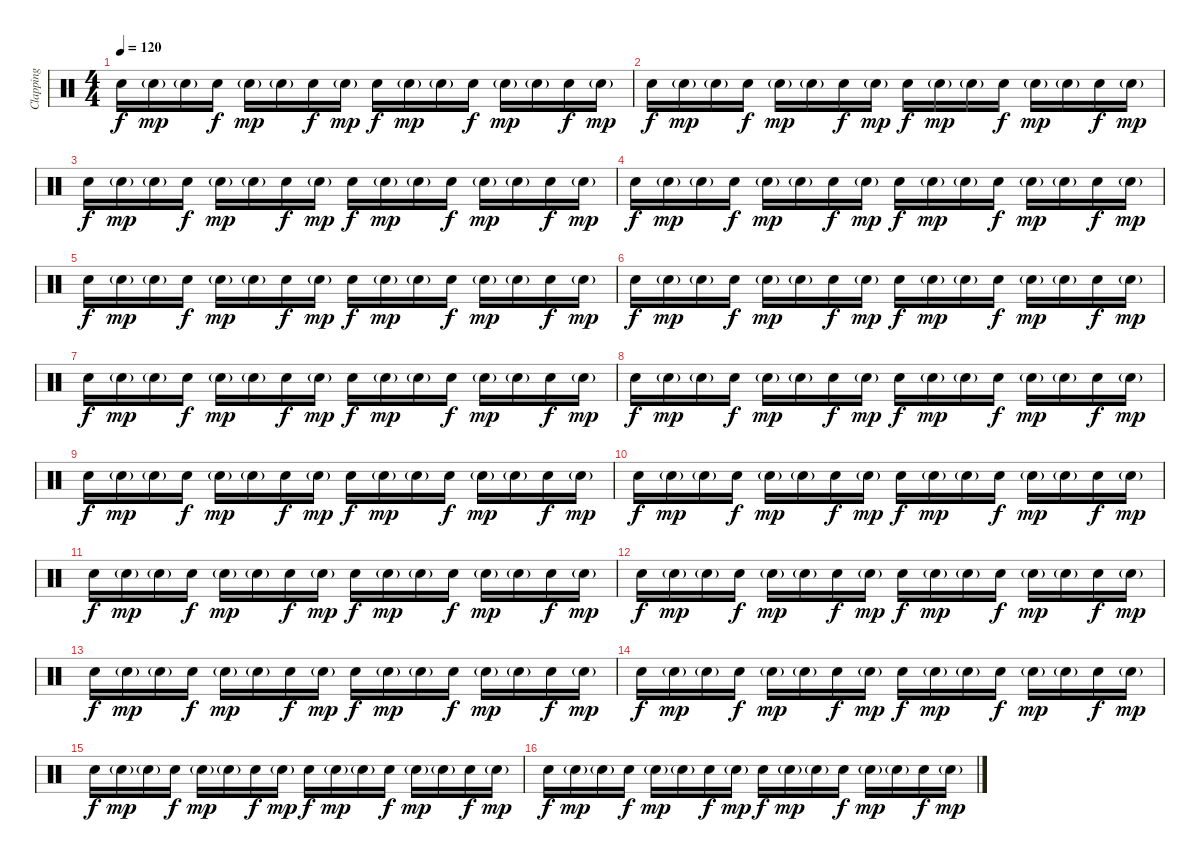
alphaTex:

\track ("Clapping" "Clapping") {instrument percussion}
\staff {score}
\articulation defaults
\ts (4 4)
\tempo 120
\clef neutral
\ks c "Hand Clap (hit)".16{dy f} "Hand Clap (hit)"{g}.16{dy mp} "Hand Clap (hit)"{g}.16 "Hand Clap (hit)".16{dy f} "Hand Clap (hit)"{g}.16{dy mp} "Hand Clap (hit)"{g}.16 "Hand Clap (hit)".16{dy f} "Hand Clap (hit)"{g}.16{dy mp} "Hand Clap (hit)".16{dy f} "Hand Clap (hit)"{g}.16{dy mp} "Hand Clap (hit)"{g}.16 "Hand Clap (hit)".16{dy f} "Hand Clap (hit)"{g}.16{dy mp} "Hand Clap (hit)"{g}.16 "Hand Clap (hit)".16{dy f} "Hand Clap (hit)"{g}.16{dy mp}
|
"Hand Clap (hit)".16{dy f} "Hand Clap (hit)"{g}.16{dy mp} "Hand Clap (hit)"{g}.16 "Hand Clap (hit)".16{dy f} "Hand Clap (hit)"{g}.16{dy mp} "Hand Clap (hit)"{g}.16 "Hand Clap (hit)".16{dy f} "Hand Clap (hit)"{g}.16{dy mp} "Hand Clap (hit)".16{dy f} "Hand Clap (hit)"{g}.16{dy mp} "Hand Clap (hit)"{g}.16 "Hand Clap (hit)".16{dy f} "Hand Clap (hit)"{g}.16{dy mp} "Hand Clap (hit)"{g}.16 "Hand Clap (hit)".16{dy f} "Hand Clap (hit)"{g}.16{dy mp} |
"Hand Clap (hit)".16{dy f} "Hand Clap (hit)"{g}.16{dy mp} "Hand Clap (hit)"{g}.16 "Hand Clap (hit)".16{dy f} "Hand Clap (hit)"{g}.16{dy mp} "Hand Clap (hit)"{g}.16 "Hand Clap (hit)".16{dy f} "Hand Clap (hit)"{g}.16{dy mp} "Hand Clap (hit)".16{dy f} "Hand Clap (hit)"{g}.16{dy mp} "Hand Clap (hit)"{g}.16 "Hand Clap (hit)".16{dy f} "Hand Clap (hit)"{g}.16{dy mp} "Hand Clap (hit)"{g}.16 "Hand Clap (hit)".16{dy f} "Hand Clap (hit)"{g}.16{dy mp} |
"Hand Clap (hit)".16{dy f} "Hand Clap (hit)"{g}.16{dy mp} "Hand Clap (hit)"{g}.16 "Hand Clap (hit)".16{dy f} "Hand Clap (hit)"{g}.16{dy mp} "Hand Clap (hit)"{g}.16 "Hand Clap (hit)".16{dy f} "Hand Clap (hit)"{g}.16{dy mp} "Hand Clap (hit)".16{dy f} "Hand Clap (hit)"{g}.16{dy mp} "Hand Clap (hit)"{g}.16 "Hand Clap (hit)".16{dy f} "Hand Clap (hit)"{g}.16{dy mp} "Hand Clap (hit)"{g}.16 "Hand Clap (hit)".16{dy f} "Hand Clap (hit)"{g}.16{dy mp} |
"Hand Clap (hit)".16{dy f} "Hand Clap (hit)"{g}.16{dy mp} "Hand Clap (hit)"{g}.16 "Hand Clap (hit)".16{dy f} "Hand Clap (hit)"{g}.16{dy mp} "Hand Clap (hit)"{g}.16 "Hand Clap (hit)".16{dy f} "Hand Clap (hit)"{g}.16{dy mp} "Hand Clap (hit)".16{dy f} "Hand Clap (hit)"{g}.16{dy mp} "Hand Clap (hit)"{g}.16 "Hand Clap (hit)".16{dy f} "Hand Clap (hit)"{g}.16{dy mp} "Hand Clap (hit)"{g}.16 "Hand Clap (hit)".16{dy f} "Hand Clap (hit)"{g}.16{dy mp} |
"Hand Clap (hit)".16{dy f} "Hand Clap (hit)"{g}.16{dy mp} "Hand Clap (hit)"{g}.16 "Hand Clap (hit)".16{dy f} "Hand Clap (hit)"{g}.16{dy mp} "Hand Clap (hit)"{g}.16 "Hand Clap (hit)".16{dy f} "Hand Clap (hit)"{g}.16{dy mp} "Hand Clap (hit)".16{dy f} "Hand Clap (hit)"{g}.16{dy mp} "Hand Clap (hit)"{g}.16 "Hand Clap (hit)".16{dy f} "Hand Clap (hit)"{g}.16{dy mp} "Hand Clap (hit)"{g}.16 "Hand Clap (hit)".16{dy f} "Hand Clap (hit)"{g}.16{dy mp} |
"Hand Clap (hit)".16{dy f} "Hand Clap (hit)"{g}.16{dy mp} "Hand Clap (hit)"{g}.16 "Hand Clap (hit)".16{dy f} "Hand Clap (hit)"{g}.16{dy mp} "Hand Clap (hit)"{g}.16 "Hand Clap (hit)".16{dy f} "Hand Clap (hit)"{g}.16{dy mp} "Hand Clap (hit)".16{dy f} "Hand Clap (hit)"{g}.16{dy mp} "Hand Clap (hit)"{g}.16 "Hand Clap (hit)".16{dy f} "Hand Clap (hit)"{g}.16{dy mp} "Hand Clap (hit)"{g}.16 "Hand Clap (hit)".16{dy f} "Hand Clap (hit)"{g}.16{dy mp} |
"Hand Clap (hit)".16{dy f} "Hand Clap (hit)"{g}.16{dy mp} "Hand Clap (hit)"{g}.16 "Hand Clap (hit)".16{dy f} "Hand Clap (hit)"{g}.16{dy mp} "Hand Clap (hit)"{g}.16 "Hand Clap (hit)".16{dy f} "Hand Clap (hit)"{g}.16{dy mp} "Hand Clap (hit)".16{dy f} "Hand Clap (hit)"{g}.16{dy mp} "Hand Clap (hit)"{g}.16 "Hand Clap (hit)".16{dy f} "Hand Clap (hit)"{g}.16{dy mp} "Hand Clap (hit)"{g}.16 "Hand Clap (hit)".16{dy f} "Hand Clap (hit)"{g}.16{dy mp} |
"Hand Clap (hit)".16{dy f} "Hand Clap (hit)"{g}.16{dy mp} "Hand Clap (hit)"{g}.16 "Hand Clap (hit)".16{dy f} "Hand Clap (hit)"{g}.16{dy mp} "Hand Clap (hit)"{g}.16 "Hand Clap (hit)".16{dy f} "Hand Clap (hit)"{g}.16{dy mp} "Hand Clap (hit)".16{dy f} "Hand Clap (hit)"{g}.16{dy mp} "Hand Clap (hit)"{g}.16 "Hand Clap (hit)".16{dy f} "Hand Clap (hit)"{g}.16{dy mp} "Hand Clap (hit)"{g}.16 "Hand Clap (hit)".16{dy f} "Hand Clap (hit)"{g}.16{dy mp} |
"Hand Clap (hit)".16{dy f} "Hand Clap (hit)"{g}.16{dy mp} "Hand Clap (hit)"{g}.16 "Hand Clap (hit)".16{dy f} "Hand Clap (hit)"{g}.16{dy mp} "Hand Clap (hit)"{g}.16 "Hand Clap (hit)".16{dy f} "Hand Clap (hit)"{g}.16{dy mp} "Hand Clap (hit)".16{dy f} "Hand Clap (hit)"{g}.16{dy mp} "Hand Clap (hit)"{g}.16 "Hand Clap (hit)".16{dy f} "Hand Clap (hit)"{g}.16{dy mp} "Hand Clap (hit)"{g}.16 "Hand Clap (hit)".16{dy f} "Hand Clap (hit)"{g}.16{dy mp} |
"Hand Clap (hit)".16{dy f} "Hand Clap (hit)"{g}.16{dy mp} "Hand Clap (hit)"{g}.16 "Hand Clap (hit)".16{dy f} "Hand Clap (hit)"{g}.16{dy mp} "Hand Clap (hit)"{g}.16 "Hand Clap (hit)".16{dy f} "Hand Clap (hit)"{g}.16{dy mp} "Hand Clap (hit)".16{dy f} "Hand Clap (hit)"{g}.16{dy mp} "Hand Clap (hit)"{g}.16 "Hand Clap (hit)".16{dy f} "Hand Clap (hit)"{g}.16{dy mp} "Hand Clap (hit)"{g}.16 "Hand Clap (hit)".16{dy f} "Hand Clap (hit)"{g}.16{dy mp} |
"Hand Clap (hit)".16{dy f} "Hand Clap (hit)"{g}.16{dy mp} "Hand Clap (hit)"{g}.16 "Hand Clap (hit)".16{dy f} "Hand Clap (hit)"{g}.16{dy mp} "Hand Clap (hit)"{g}.16 "Hand Clap (hit)".16{dy f} "Hand Clap (hit)"{g}.16{dy mp} "Hand Clap (hit)".16{dy f} "Hand Clap (hit)"{g}.16{dy mp} "Hand Clap (hit)"{g}.16 "Hand Clap (hit)".16{dy f} "Hand Clap (hit)"{g}.16{dy mp} "Hand Clap (hit)"{g}.16 "Hand Clap (hit)".16{dy f} "Hand Clap (hit)"{g}.16{dy mp} |
"Hand Clap (hit)".16{dy f} "Hand Clap (hit)"{g}.16{dy mp} "Hand Clap (hit)"{g}.16 "Hand Clap (hit)".16{dy f} "Hand Clap (hit)"{g}.16{dy mp} "Hand Clap (hit)"{g}.16 "Hand Clap (hit)".16{dy f} "Hand Clap (hit)"{g}.16{dy mp} "Hand Clap (hit)".16{dy f} "Hand Clap (hit)"{g}.16{dy mp} "Hand Clap (hit)"{g}.16 "Hand Clap (hit)".16{dy f} "Hand Clap (hit)"{g}.16{dy mp} "Hand Clap (hit)"{g}.16 "Hand Clap (hit)".16{dy f} "Hand Clap (hit)"{g}.16{dy mp} |
"Hand Clap (hit)".16{dy f} "Hand Clap (hit)"{g}.16{dy mp} "Hand Clap (hit)"{g}.16 "Hand Clap (hit)".16{dy f} "Hand Clap (hit)"{g}.16{dy mp} "Hand Clap (hit)"{g}.16 "Hand Clap (hit)".16{dy f} "Hand Clap (hit)"{g}.16{dy mp} "Hand Clap (hit)".16{dy f} "Hand Clap (hit)"{g}.16{dy mp} "Hand Clap (hit)"{g}.16 "Hand Clap (hit)".16{dy f} "Hand Clap (hit)"{g}.16{dy mp} "Hand Clap (hit)"{g}.16 "Hand Clap (hit)".16{dy f} "Hand Clap (hit)"{g}.16{dy mp} |
"Hand Clap (hit)".16{dy f} "Hand Clap (hit)"{g}.16{dy mp} "Hand Clap (hit)"{g}.16 "Hand Clap (hit)".16{dy f} "Hand Clap (hit)"{g}.16{dy mp} "Hand Clap (hit)"{g}.16 "Hand Clap (hit)".16{dy f} "Hand Clap (hit)"{g}.16{dy mp} "Hand Clap (hit)".16{dy f} "Hand Clap (hit)"{g}.16{dy mp} "Hand Clap (hit)"{g}.16 "Hand Clap (hit)".16{dy f} "Hand Clap (hit)"{g}.16{dy mp} "Hand Clap (hit)"{g}.16 "Hand Clap (hit)".16{dy f} "Hand Clap (hit)"{g}.16{dy mp} |
"Hand Clap (hit)".16{dy f} "Hand Clap (hit)"{g}.16{dy mp} "Hand Clap (hit)"{g}.16 "Hand Clap (hit)".16{dy f} "Hand Clap (hit)"{g}.16{dy mp} "Hand Clap (hit)"{g}.16 "Hand Clap (hit)".16{dy f} "Hand Clap (hit)"{g}.16{dy mp} "Hand Clap (hit)".16{dy f} "Hand Clap (hit)"{g}.16{dy mp} "Hand Clap (hit)"{g}.16 "Hand Clap (hit)".16{dy f} "Hand Clap (hit)"{g}.16{dy mp} "Hand Clap (hit)"{g}.16 "Hand Clap (hit)".16{dy f} "Hand Clap (hit)"{g}.16{dy mp}
